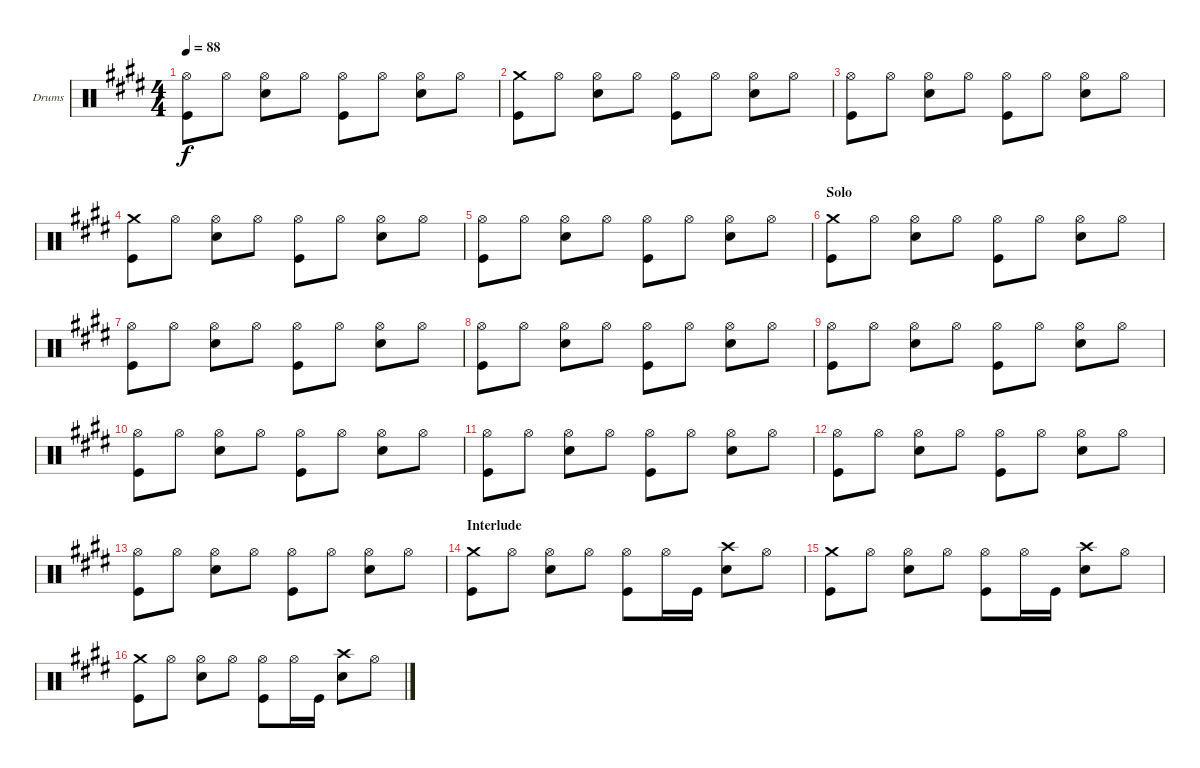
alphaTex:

\defaultSystemsLayout 4
\bracketExtendMode groupsimilarinstruments
\firstSystemTrackNameOrientation horizontal
\otherSystemsTrackNameOrientation horizontal
\track ("Drumkit" "Drums") {instrument percussion}
\staff {score}
\articulation defaults
\ts (4 4)
\tempo 88
\clef neutral
\ks e
("Kick (hit)" "Hi-Hat (open)").8{dy f} "Hi-Hat (open)".8 ("Hi-Hat (open)" "Snare (hit) 2").8 "Hi-Hat (open)".8 ("Kick (hit)" "Hi-Hat (open)").8 "Hi-Hat (open)".8 ("Hi-Hat (open)" "Snare (hit) 2").8 "Hi-Hat (open)".8 |
("Kick (hit)" "Crash medium (hit)").8 "Hi-Hat (open)".8 ("Hi-Hat (open)" "Snare (hit) 2").8 "Hi-Hat (open)".8 ("Kick (hit)" "Hi-Hat (open)").8 "Hi-Hat (open)".8 ("Hi-Hat (open)" "Snare (hit) 2").8 "Hi-Hat (open)".8 |
("Kick (hit)" "Hi-Hat (open)").8 "Hi-Hat (open)".8 ("Hi-Hat (open)" "Snare (hit) 2").8 "Hi-Hat (open)".8 ("Kick (hit)" "Hi-Hat (open)").8 "Hi-Hat (open)".8 ("Hi-Hat (open)" "Snare (hit) 2").8 "Hi-Hat (open)".8 |
("Kick (hit)" "Crash medium (hit)").8 "Hi-Hat (open)".8 ("Hi-Hat (open)" "Snare (hit) 2").8 "Hi-Hat (open)".8 ("Kick (hit)" "Hi-Hat (open)").8 "Hi-Hat (open)".8 ("Hi-Hat (open)" "Snare (hit) 2").8 "Hi-Hat (open)".8 |
("Kick (hit)" "Hi-Hat (open)").8 "Hi-Hat (open)".8 ("Hi-Hat (open)" "Snare (hit) 2").8 "Hi-Hat (open)".8 ("Kick (hit)" "Hi-Hat (open)").8 "Hi-Hat (open)".8 ("Hi-Hat (open)" "Snare (hit) 2").8 "Hi-Hat (open)".8 |
\section ("" "Solo")
("Kick (hit)" "Crash medium (hit)").8 "Hi-Hat (open)".8 ("Hi-Hat (open)" "Snare (hit) 2").8 "Hi-Hat (open)".8 ("Kick (hit)" "Hi-Hat (open)").8 "Hi-Hat (open)".8 ("Hi-Hat (open)" "Snare (hit) 2").8 "Hi-Hat (open)".8 |
("Kick (hit)" "Hi-Hat (open)").8 "Hi-Hat (open)".8 ("Hi-Hat (open)" "Snare (hit) 2").8 "Hi-Hat (open)".8 ("Kick (hit)" "Hi-Hat (open)").8 "Hi-Hat (open)".8 ("Hi-Hat (open)" "Snare (hit) 2").8 "Hi-Hat (open)".8 |
("Kick (hit)" "Hi-Hat (open)").8 "Hi-Hat (open)".8 ("Hi-Hat (open)" "Snare (hit) 2").8 "Hi-Hat (open)".8 ("Kick (hit)" "Hi-Hat (open)").8 "Hi-Hat (open)".8 ("Hi-Hat (open)" "Snare (hit) 2").8 "Hi-Hat (open)".8 |
("Kick (hit)" "Hi-Hat (open)").8 "Hi-Hat (open)".8 ("Hi-Hat (open)" "Snare (hit) 2").8 "Hi-Hat (open)".8 ("Kick (hit)" "Hi-Hat (open)").8 "Hi-Hat (open)".8 ("Hi-Hat (open)" "Snare (hit) 2").8 "Hi-Hat (open)".8 |
("Kick (hit)" "Hi-Hat (open)").8 "Hi-Hat (open)".8 ("Hi-Hat (open)" "Snare (hit) 2").8 "Hi-Hat (open)".8 ("Kick (hit)" "Hi-Hat (open)").8 "Hi-Hat (open)".8 ("Hi-Hat (open)" "Snare (hit) 2").8 "Hi-Hat (open)".8 |
("Kick (hit)" "Hi-Hat (open)").8 "Hi-Hat (open)".8 ("Hi-Hat (open)" "Snare (hit) 2").8 "Hi-Hat (open)".8 ("Kick (hit)" "Hi-Hat (open)").8 "Hi-Hat (open)".8 ("Hi-Hat (open)" "Snare (hit) 2").8 "Hi-Hat (open)".8 |
("Kick (hit)" "Hi-Hat (open)").8 "Hi-Hat (open)".8 ("Hi-Hat (open)" "Snare (hit) 2").8 "Hi-Hat (open)".8 ("Kick (hit)" "Hi-Hat (open)").8 "Hi-Hat (open)".8 ("Hi-Hat (open)" "Snare (hit) 2").8 "Hi-Hat (open)".8 |
("Kick (hit)" "Hi-Hat (open)").8 "Hi-Hat (open)".8 ("Hi-Hat (open)" "Snare (hit) 2").8 "Hi-Hat (open)".8 ("Kick (hit)" "Hi-Hat (open)").8 "Hi-Hat (open)".8 ("Hi-Hat (open)" "Snare (hit) 2").8 "Hi-Hat (open)".8 |
\section ("" "Interlude")
("Kick (hit)" "Crash medium (hit)").8 "Hi-Hat (open)".8 ("Hi-Hat (open)" "Snare (hit) 2").8 "Hi-Hat (open)".8 ("Kick (hit)" "Hi-Hat (open)").8 "Hi-Hat (open)".16 "Kick (hit)".16 ("Snare (hit) 2" "Crash high (hit)").8 "Hi-Hat (open)".8 |
("Kick (hit)" "Crash medium (hit)").8 "Hi-Hat (open)".8 ("Hi-Hat (open)" "Snare (hit) 2").8 "Hi-Hat (open)".8 ("Kick (hit)" "Hi-Hat (open)").8 "Hi-Hat (open)".16 "Kick (hit)".16 ("Snare (hit) 2" "Crash high (hit)").8 "Hi-Hat (open)".8 |
("Kick (hit)" "Crash medium (hit)").8 "Hi-Hat (open)".8 ("Hi-Hat (open)" "Snare (hit) 2").8 "Hi-Hat (open)".8 ("Kick (hit)" "Hi-Hat (open)").8 "Hi-Hat (open)".16 "Kick (hit)".16 ("Snare (hit) 2" "Crash high (hit)").8 "Hi-Hat (open)".8
